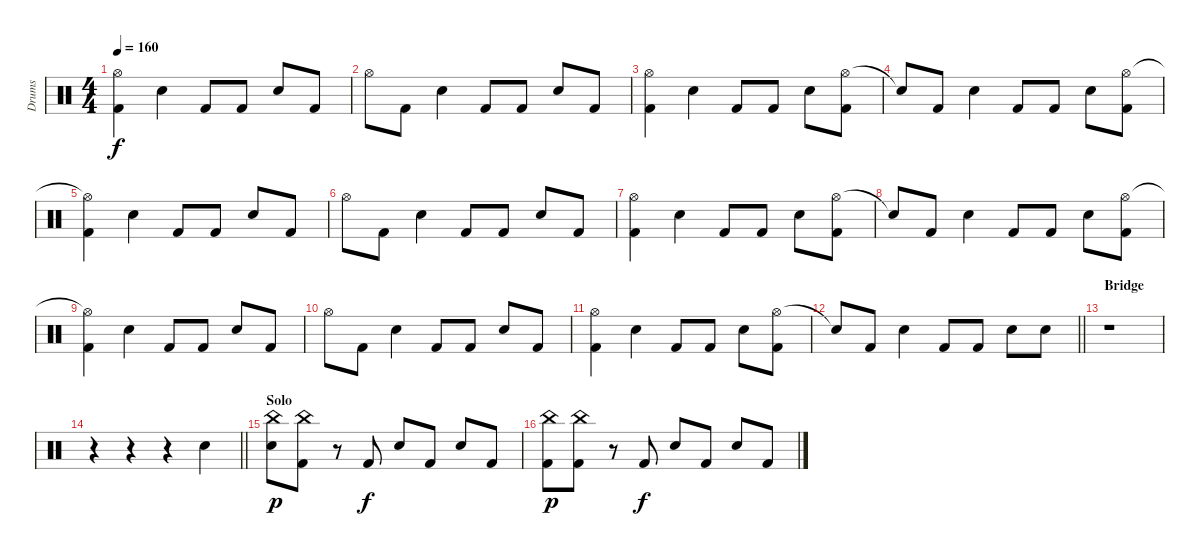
\track ("Drums" "Drums") {instrument percussion}
\staff {score}
\articulation defaults
\ts (4 4)
\tempo 160
\clef neutral
\ks c
("Hi-Hat (open)"{t} "Kick (hit) 2").4{dy f} "Snare (hit) 2".4 "Kick (hit) 2".8 "Kick (hit) 2".8 "Snare (hit) 2".8 "Kick (hit) 2".8 |
"Hi-Hat (open)".8 "Kick (hit) 2".8 "Snare (hit) 2".4 "Kick (hit) 2".8 "Kick (hit) 2".8 "Snare (hit) 2".8 "Kick (hit) 2".8 |
("Hi-Hat (open)" "Kick (hit) 2").4 "Snare (hit) 2".4 "Kick (hit) 2".8 "Kick (hit) 2".8 "Snare (hit) 2".8 ("Hi-Hat (open)" "Kick (hit) 2").8 |
"Snare (hit)"{t}.8 "Kick (hit) 2".8 "Snare (hit) 2".4 "Kick (hit) 2".8 "Kick (hit) 2".8 "Snare (hit) 2".8 ("Hi-Hat (open)" "Kick (hit) 2").8 |
("Hi-Hat (open)"{t} "Kick (hit) 2").4 "Snare (hit) 2".4 "Kick (hit) 2".8 "Kick (hit) 2".8 "Snare (hit) 2".8 "Kick (hit) 2".8 |
"Hi-Hat (open)".8 "Kick (hit) 2".8 "Snare (hit) 2".4 "Kick (hit) 2".8 "Kick (hit) 2".8 "Snare (hit) 2".8 "Kick (hit) 2".8 |
("Hi-Hat (open)" "Kick (hit) 2").4 "Snare (hit) 2".4 "Kick (hit) 2".8 "Kick (hit) 2".8 "Snare (hit) 2".8 ("Hi-Hat (open)" "Kick (hit) 2").8 |
"Snare (hit)"{t}.8 "Kick (hit) 2".8 "Snare (hit) 2".4 "Kick (hit) 2".8 "Kick (hit) 2".8 "Snare (hit) 2".8 ("Hi-Hat (open)" "Kick (hit) 2").8 |
("Hi-Hat (open)"{t} "Kick (hit) 2").4 "Snare (hit) 2".4 "Kick (hit) 2".8 "Kick (hit) 2".8 "Snare (hit) 2".8 "Kick (hit) 2".8 |
"Hi-Hat (open)".8 "Kick (hit) 2".8 "Snare (hit) 2".4 "Kick (hit) 2".8 "Kick (hit) 2".8 "Snare (hit) 2".8 "Kick (hit) 2".8 |
("Hi-Hat (open)" "Kick (hit) 2").4 "Snare (hit) 2".4 "Kick (hit) 2".8 "Kick (hit) 2".8 "Snare (hit) 2".8 ("Hi-Hat (open)" "Kick (hit) 2").8 |
\barLineRight lightlight "Snare (hit)"{t}.8 "Kick (hit) 2".8 "Snare (hit) 2".4 "Kick (hit) 2".8 "Kick (hit) 2".8 "Snare (hit) 2".8 "Snare (hit) 2".8
|
\section ("" "Bridge")
r.1 |
\barLineRight lightlight
r.4 r.4 r.4 "Snare (hit) 2".4 |
\section ("" "Solo")
("China (hit)" "Snare (hit) 2").8{dy p} ("China (hit)" "Kick (hit) 2").8 r.8 "Kick (hit) 2".8{dy f} "Snare (hit) 2".8 "Kick (hit) 2".8 "Snare (hit) 2".8 "Kick (hit) 2".8 |
("China (hit)" "Kick (hit) 2").8{dy p} ("China (hit)" "Kick (hit) 2").8 r.8 "Kick (hit) 2".8{dy f} "Snare (hit) 2".8 "Kick (hit) 2".8 "Snare (hit) 2".8 "Kick (hit) 2".8
